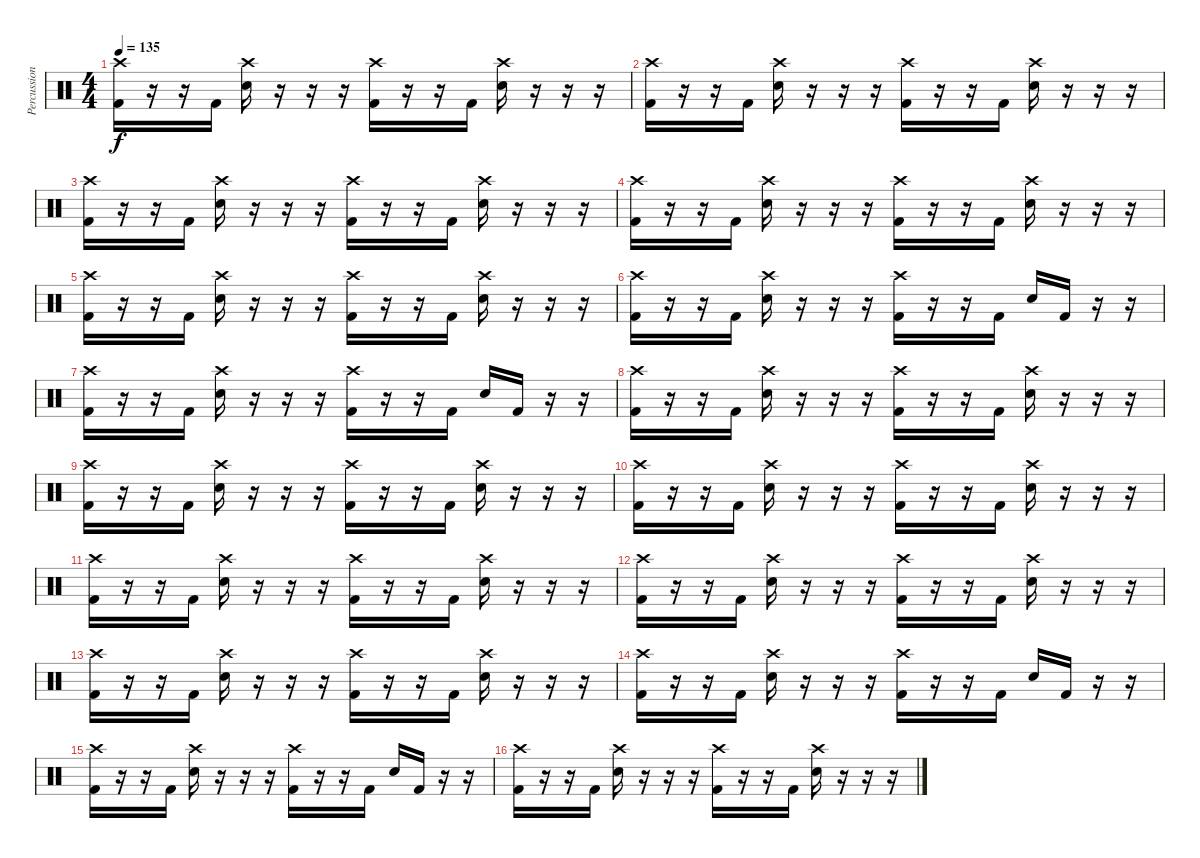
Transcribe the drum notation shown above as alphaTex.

\track ("Percussions" "Percussion") {instrument percussion}
\staff {score}
\articulation defaults
\ts (4 4)
\tempo 135
\clef neutral
\ks c
("Crash high (hit)" "Kick (hit) 2").16{dy f} r.16 r.16 "Kick (hit) 2".16 ("Crash high (hit)" "Electric Snare (hit)").16 r.16 r.16 r.16 ("Crash high (hit)" "Kick (hit) 2").16 r.16 r.16 "Kick (hit) 2".16 ("Crash high (hit)" "Electric Snare (hit)").16 r.16 r.16 r.16 |
("Crash high (hit)" "Kick (hit) 2").16 r.16 r.16 "Kick (hit) 2".16 ("Crash high (hit)" "Electric Snare (hit)").16 r.16 r.16 r.16 ("Crash high (hit)" "Kick (hit) 2").16 r.16 r.16 "Kick (hit) 2".16 ("Crash high (hit)" "Electric Snare (hit)").16 r.16 r.16 r.16 |
("Crash high (hit)" "Kick (hit) 2").16 r.16 r.16 "Kick (hit) 2".16 ("Crash high (hit)" "Electric Snare (hit)").16 r.16 r.16 r.16 ("Crash high (hit)" "Kick (hit) 2").16 r.16 r.16 "Kick (hit) 2".16 ("Crash high (hit)" "Electric Snare (hit)").16 r.16 r.16 r.16 |
("Crash high (hit)" "Kick (hit) 2").16 r.16 r.16 "Kick (hit) 2".16 ("Crash high (hit)" "Electric Snare (hit)").16 r.16 r.16 r.16 ("Crash high (hit)" "Kick (hit) 2").16 r.16 r.16 "Kick (hit) 2".16 ("Crash high (hit)" "Electric Snare (hit)").16 r.16 r.16 r.16 |
("Crash high (hit)" "Kick (hit) 2").16 r.16 r.16 "Kick (hit) 2".16 ("Crash high (hit)" "Electric Snare (hit)").16 r.16 r.16 r.16 ("Crash high (hit)" "Kick (hit) 2").16 r.16 r.16 "Kick (hit) 2".16 ("Crash high (hit)" "Electric Snare (hit)").16 r.16 r.16 r.16 |
("Crash high (hit)" "Kick (hit) 2").16 r.16 r.16 "Kick (hit) 2".16 ("Crash high (hit)" "Electric Snare (hit)").16 r.16 r.16 r.16 ("Crash high (hit)" "Kick (hit) 2").16 r.16 r.16 "Kick (hit) 2".16 "Electric Snare (hit)".16 "Kick (hit) 2".16 r.16 r.16 |
("Crash high (hit)" "Kick (hit) 2").16 r.16 r.16 "Kick (hit) 2".16 ("Crash high (hit)" "Electric Snare (hit)").16 r.16 r.16 r.16 ("Crash high (hit)" "Kick (hit) 2").16 r.16 r.16 "Kick (hit) 2".16 "Electric Snare (hit)".16 "Kick (hit) 2".16 r.16 r.16 |
("Crash high (hit)" "Kick (hit) 2").16 r.16 r.16 "Kick (hit) 2".16 ("Crash high (hit)" "Electric Snare (hit)").16 r.16 r.16 r.16 ("Crash high (hit)" "Kick (hit) 2").16 r.16 r.16 "Kick (hit) 2".16 ("Crash high (hit)" "Electric Snare (hit)").16 r.16 r.16 r.16 |
("Crash high (hit)" "Kick (hit) 2").16 r.16 r.16 "Kick (hit) 2".16 ("Crash high (hit)" "Electric Snare (hit)").16 r.16 r.16 r.16 ("Crash high (hit)" "Kick (hit) 2").16 r.16 r.16 "Kick (hit) 2".16 ("Crash high (hit)" "Electric Snare (hit)").16 r.16 r.16 r.16 |
("Crash high (hit)" "Kick (hit) 2").16 r.16 r.16 "Kick (hit) 2".16 ("Crash high (hit)" "Electric Snare (hit)").16 r.16 r.16 r.16 ("Crash high (hit)" "Kick (hit) 2").16 r.16 r.16 "Kick (hit) 2".16 ("Crash high (hit)" "Electric Snare (hit)").16 r.16 r.16 r.16 |
("Crash high (hit)" "Kick (hit) 2").16 r.16 r.16 "Kick (hit) 2".16 ("Crash high (hit)" "Electric Snare (hit)").16 r.16 r.16 r.16 ("Crash high (hit)" "Kick (hit) 2").16 r.16 r.16 "Kick (hit) 2".16 ("Crash high (hit)" "Electric Snare (hit)").16 r.16 r.16 r.16 |
("Crash high (hit)" "Kick (hit) 2").16 r.16 r.16 "Kick (hit) 2".16 ("Crash high (hit)" "Electric Snare (hit)").16 r.16 r.16 r.16 ("Crash high (hit)" "Kick (hit) 2").16 r.16 r.16 "Kick (hit) 2".16 ("Crash high (hit)" "Electric Snare (hit)").16 r.16 r.16 r.16 |
("Crash high (hit)" "Kick (hit) 2").16 r.16 r.16 "Kick (hit) 2".16 ("Crash high (hit)" "Electric Snare (hit)").16 r.16 r.16 r.16 ("Crash high (hit)" "Kick (hit) 2").16 r.16 r.16 "Kick (hit) 2".16 ("Crash high (hit)" "Electric Snare (hit)").16 r.16 r.16 r.16 |
("Crash high (hit)" "Kick (hit) 2").16 r.16 r.16 "Kick (hit) 2".16 ("Crash high (hit)" "Electric Snare (hit)").16 r.16 r.16 r.16 ("Crash high (hit)" "Kick (hit) 2").16 r.16 r.16 "Kick (hit) 2".16 "Electric Snare (hit)".16 "Kick (hit) 2".16 r.16 r.16 |
("Crash high (hit)" "Kick (hit) 2").16 r.16 r.16 "Kick (hit) 2".16 ("Crash high (hit)" "Electric Snare (hit)").16 r.16 r.16 r.16 ("Crash high (hit)" "Kick (hit) 2").16 r.16 r.16 "Kick (hit) 2".16 "Electric Snare (hit)".16 "Kick (hit) 2".16 r.16 r.16 |
("Crash high (hit)" "Kick (hit) 2").16 r.16 r.16 "Kick (hit) 2".16 ("Crash high (hit)" "Electric Snare (hit)").16 r.16 r.16 r.16 ("Crash high (hit)" "Kick (hit) 2").16 r.16 r.16 "Kick (hit) 2".16 ("Crash high (hit)" "Electric Snare (hit)").16 r.16 r.16 r.16
